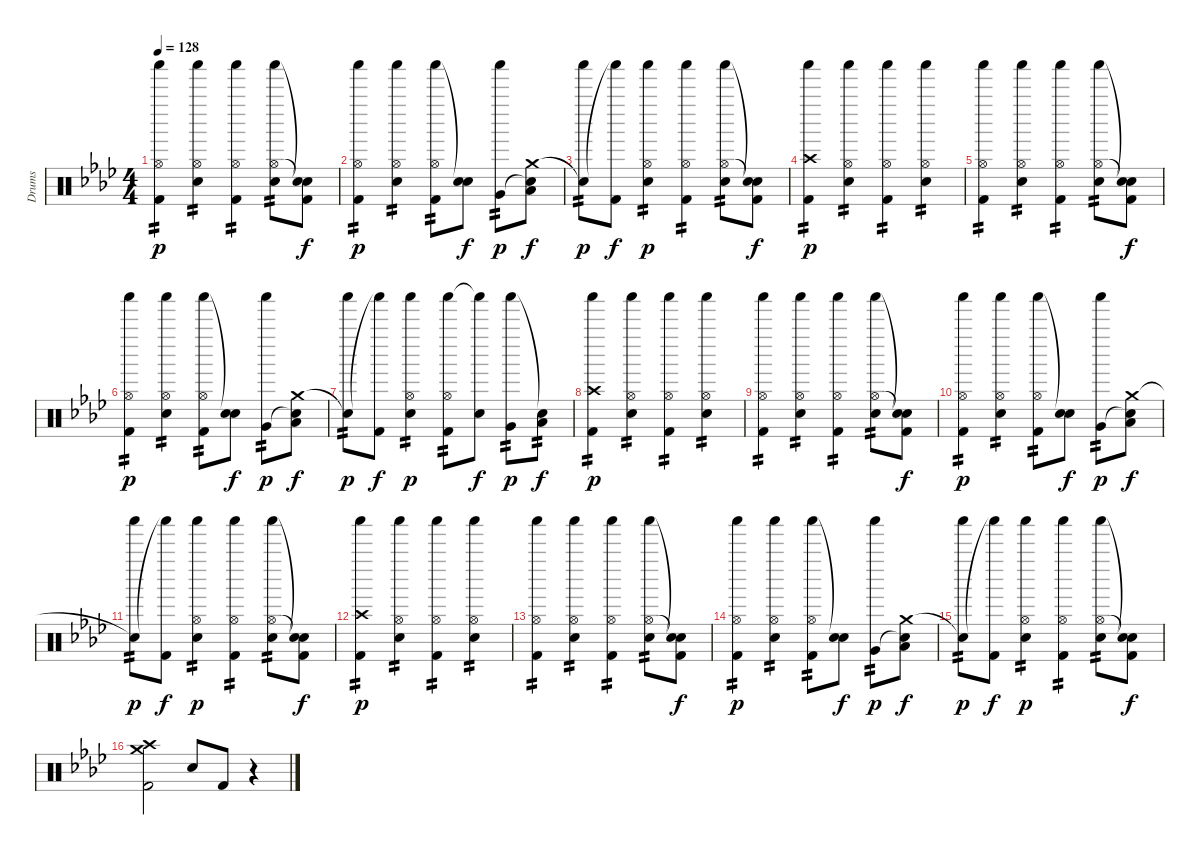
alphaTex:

\track ("Drums" "Drums") {instrument percussion}
\staff {score}
\articulation defaults
\ts (4 4)
\tempo 128
\clef neutral
\ks fminor
("Shaker (hit)" "Hi-Hat (open)" "Kick (hit) 2").4{tp 2 dy p} ("Shaker (hit)" "Hi-Hat (open)" "Electric Snare (hit)").4{tp 2} ("Shaker (hit)" "Hi-Hat (open)" "Kick (hit) 2").4{tp 2} ("Shaker (hit)" "Hi-Hat (open)" "Electric Snare (hit)").8{tp 2} ("Snare (hit)"{t} "Snare (hit)"{t} "Kick (hit) 2").8{dy f} |
("Shaker (hit)" "Hi-Hat (open)" "Kick (hit) 2").4{tp 2 dy p} ("Shaker (hit)" "Hi-Hat (open)" "Electric Snare (hit)").4{tp 2} ("Shaker (hit)" "Hi-Hat (open)" "Kick (hit) 2").8{tp 2} ("Snare (hit)"{t} "Electric Snare (hit)").8{dy f} ("Shaker (hit)" "Very Low Tom (hit)").8{tp 2 dy p} ("Crash medium (hit)" "Snare (hit)"{t} "Low Floor Tom (hit)").8{dy f} |
("Snare (hit)"{t} "Shaker (hit)").8{tp 2 dy p} ("Shaker (hit)"{t} "Kick (hit) 2").8{dy f} ("Shaker (hit)" "Hi-Hat (open)" "Electric Snare (hit)").4{tp 2 dy p} ("Shaker (hit)" "Hi-Hat (open)" "Kick (hit) 2").4{tp 2} ("Shaker (hit)" "Hi-Hat (open)" "Electric Snare (hit)").8{tp 2} ("Snare (hit)"{t} "Snare (hit)"{t} "Kick (hit) 2").8{dy f} |
("Crash high (hit)" "Shaker (hit)" "Kick (hit) 2").4{tp 2 dy p} ("Shaker (hit)" "Hi-Hat (open)" "Electric Snare (hit)").4{tp 2} ("Shaker (hit)" "Hi-Hat (open)" "Kick (hit) 2").4{tp 2} ("Shaker (hit)" "Hi-Hat (open)" "Electric Snare (hit)").4{tp 2} |
("Shaker (hit)" "Hi-Hat (open)" "Kick (hit) 2").4{tp 2} ("Shaker (hit)" "Hi-Hat (open)" "Electric Snare (hit)").4{tp 2} ("Shaker (hit)" "Hi-Hat (open)" "Kick (hit) 2").4{tp 2} ("Shaker (hit)" "Hi-Hat (open)" "Electric Snare (hit)").8{tp 2} ("Snare (hit)"{t} "Snare (hit)"{t} "Kick (hit) 2").8{dy f} |
("Shaker (hit)" "Hi-Hat (open)" "Kick (hit) 2").4{tp 2 dy p} ("Shaker (hit)" "Hi-Hat (open)" "Electric Snare (hit)").4{tp 2} ("Shaker (hit)" "Hi-Hat (open)" "Kick (hit) 2").8{tp 2} ("Snare (hit)"{t} "Electric Snare (hit)").8{dy f} ("Shaker (hit)" "Very Low Tom (hit)").8{tp 2 dy p} ("Crash medium (hit)" "Snare (hit)"{t} "Low Floor Tom (hit)").8{dy f} |
("Snare (hit)"{t} "Shaker (hit)").8{tp 2 dy p} ("Shaker (hit)"{t} "Kick (hit) 2").8{dy f} ("Shaker (hit)" "Hi-Hat (open)" "Electric Snare (hit)").4{tp 2 dy p} ("Shaker (hit)" "Hi-Hat (open)" "Kick (hit) 2").8{tp 2} ("Shaker (hit)"{t} "Electric Snare (hit)").8{dy f} ("Shaker (hit)" "Very Low Tom (hit)").8{tp 2 dy p} ("Snare (hit)"{t} "Low Floor Tom (hit)").8{tp 2 dy f} |
("Crash high (hit)" "Shaker (hit)" "Kick (hit) 2").4{tp 2 dy p} ("Shaker (hit)" "Hi-Hat (open)" "Electric Snare (hit)").4{tp 2} ("Shaker (hit)" "Hi-Hat (open)" "Kick (hit) 2").4{tp 2} ("Shaker (hit)" "Hi-Hat (open)" "Electric Snare (hit)").4{tp 2} |
("Shaker (hit)" "Hi-Hat (open)" "Kick (hit) 2").4{tp 2} ("Shaker (hit)" "Hi-Hat (open)" "Electric Snare (hit)").4{tp 2} ("Shaker (hit)" "Hi-Hat (open)" "Kick (hit) 2").4{tp 2} ("Shaker (hit)" "Hi-Hat (open)" "Electric Snare (hit)").8{tp 2} ("Snare (hit)"{t} "Snare (hit)"{t} "Kick (hit) 2").8{dy f} |
("Shaker (hit)" "Hi-Hat (open)" "Kick (hit) 2").4{tp 2 dy p} ("Shaker (hit)" "Hi-Hat (open)" "Electric Snare (hit)").4{tp 2} ("Shaker (hit)" "Hi-Hat (open)" "Kick (hit) 2").8{tp 2} ("Snare (hit)"{t} "Electric Snare (hit)").8{dy f} ("Shaker (hit)" "Very Low Tom (hit)").8{tp 2 dy p} ("Crash medium (hit)" "Snare (hit)"{t} "Low Floor Tom (hit)").8{dy f} |
("Snare (hit)"{t} "Shaker (hit)").8{tp 2 dy p} ("Shaker (hit)"{t} "Kick (hit) 2").8{dy f} ("Shaker (hit)" "Hi-Hat (open)" "Electric Snare (hit)").4{tp 2 dy p} ("Shaker (hit)" "Hi-Hat (open)" "Kick (hit) 2").4{tp 2} ("Shaker (hit)" "Hi-Hat (open)" "Electric Snare (hit)").8{tp 2} ("Snare (hit)"{t} "Snare (hit)"{t} "Kick (hit) 2").8{dy f} |
("Crash high (hit)" "Shaker (hit)" "Kick (hit) 2").4{tp 2 dy p} ("Shaker (hit)" "Hi-Hat (open)" "Electric Snare (hit)").4{tp 2} ("Shaker (hit)" "Hi-Hat (open)" "Kick (hit) 2").4{tp 2} ("Shaker (hit)" "Hi-Hat (open)" "Electric Snare (hit)").4{tp 2} |
("Shaker (hit)" "Hi-Hat (open)" "Kick (hit) 2").4{tp 2} ("Shaker (hit)" "Hi-Hat (open)" "Electric Snare (hit)").4{tp 2} ("Shaker (hit)" "Hi-Hat (open)" "Kick (hit) 2").4{tp 2} ("Shaker (hit)" "Hi-Hat (open)" "Electric Snare (hit)").8{tp 2} ("Snare (hit)"{t} "Snare (hit)"{t} "Kick (hit) 2").8{dy f} |
("Shaker (hit)" "Hi-Hat (open)" "Kick (hit) 2").4{tp 2 dy p} ("Shaker (hit)" "Hi-Hat (open)" "Electric Snare (hit)").4{tp 2} ("Shaker (hit)" "Hi-Hat (open)" "Kick (hit) 2").8{tp 2} ("Snare (hit)"{t} "Electric Snare (hit)").8{dy f} ("Shaker (hit)" "Very Low Tom (hit)").8{tp 2 dy p} ("Crash medium (hit)" "Snare (hit)"{t} "Low Floor Tom (hit)").8{dy f} |
("Snare (hit)"{t} "Shaker (hit)").8{tp 2 dy p} ("Shaker (hit)"{t} "Kick (hit) 2").8{dy f} ("Shaker (hit)" "Hi-Hat (open)" "Electric Snare (hit)").4{tp 2 dy p} ("Shaker (hit)" "Hi-Hat (open)" "Kick (hit) 2").4{tp 2} ("Shaker (hit)" "Hi-Hat (open)" "Electric Snare (hit)").8{tp 2} ("Snare (hit)"{t} "Snare (hit)"{t} "Kick (hit) 2").8{dy f} |
("Crash medium (hit)" "Crash high (hit)" "Kick (hit) 2").2 "Electric Snare (hit)".8 "Kick (hit) 2".8 r.4
